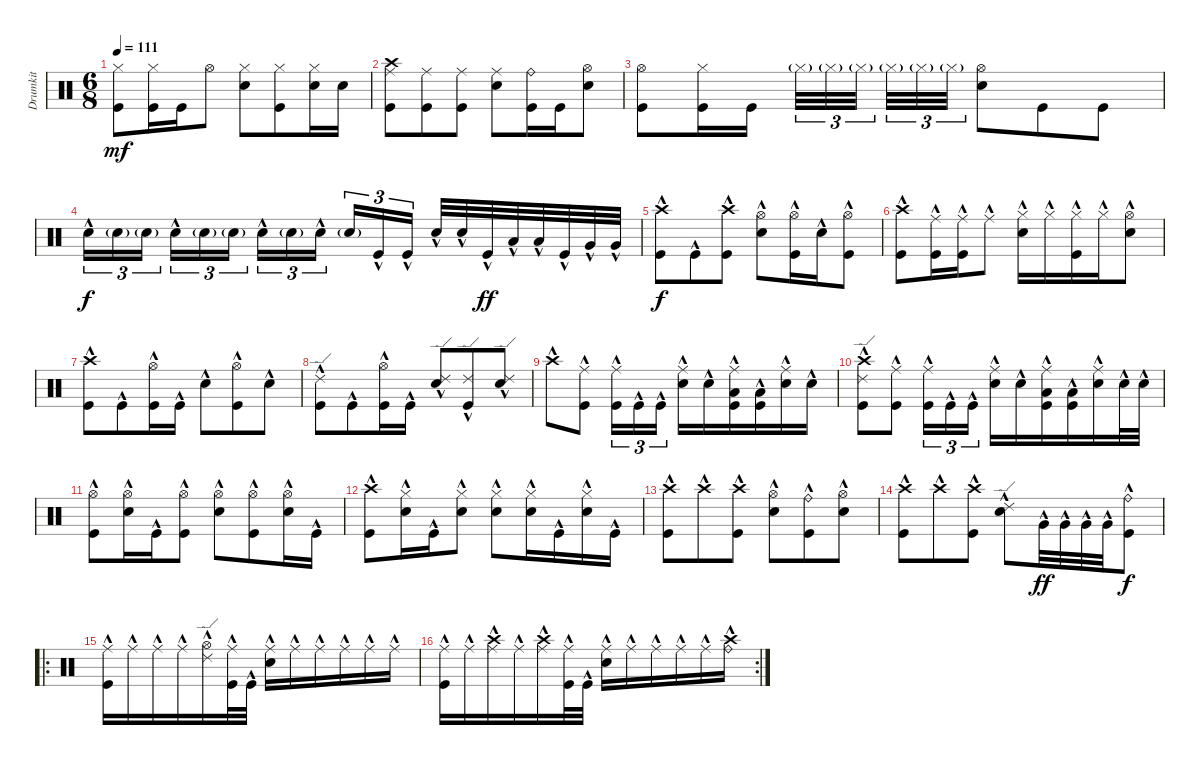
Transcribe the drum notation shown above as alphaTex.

\track ("Drumkit" "Drumkit") {instrument percussion}
\staff {score}
\articulation defaults
\ts (6 8)
\tempo 111
\clef neutral
\ks c
("Hi-Hat (closed)" "Kick (hit)").8{dy mf} ("Kick (hit)" "Hi-Hat (closed)").16 "Kick (hit)".16 "Hi-Hat (open)".8 ("Snare (hit) 2" "Hi-Hat (closed)").8 ("Kick (hit)" "Hi-Hat (closed)").8 ("Hi-Hat (closed)" "Snare (hit) 2").16 "Snare (hit) 2".16 |
("Kick (hit)" "Ride (middle)" "Crash high (hit)").8 ("Kick (hit)" "Ride (middle)").8 ("Kick (hit)" "Ride (middle)").8 ("Snare (hit) 2" "Ride (middle)").8 ("Kick (hit)" "Ride (bell)").16 "Kick (hit)".16 ("Snare (hit) 2" "Hi-Hat (open)").8 |
("Kick (hit)" "Hi-Hat (open)").8 ("Kick (hit)" "Hi-Hat (closed)").16 "Kick (hit)".16 "Hi-Hat (closed)"{g}.32{tu (3 2)} "Hi-Hat (closed)"{g}.32{tu (3 2)} "Hi-Hat (closed)"{g}.32{tu (3 2)} "Hi-Hat (closed)"{g}.32{tu (3 2)} "Hi-Hat (closed)"{g}.32{tu (3 2)} "Hi-Hat (closed)"{g}.32{tu (3 2)} ("Snare (hit) 2" "Hi-Hat (open)").8 "Kick (hit)".8 "Kick (hit)".8 |
"Snare (hit) 2"{hac}.16{tu (3 2) dy f} "Snare (hit) 2"{g}.16{tu (3 2)} "Snare (hit) 2"{g}.16{tu (3 2)} "Snare (hit) 2"{hac}.16{tu (3 2)} "Snare (hit) 2"{g}.16{tu (3 2)} "Snare (hit) 2"{g}.16{tu (3 2)} "Snare (hit) 2"{hac}.16{tu (3 2)} "Snare (hit) 2"{g}.16{tu (3 2)} "Snare (hit) 2"{hac}.16{tu (3 2)} "Snare (hit) 2"{g}.16{tu (3 2)} "Kick (hit)"{hac}.16{tu (3 2)} "Kick (hit)"{hac}.16{tu (3 2)} "Snare (hit) 2"{hac}.32 "Snare (hit) 2"{hac}.32 "Kick (hit)"{hac}.32{dy ff} "Low Tom (hit)"{hac}.32 "Low Tom (hit)"{hac}.32 "Kick (hit)"{hac}.32 "Very Low Tom (hit)"{hac}.32 "Very Low Tom (hit)"{hac}.32 |
("Kick (hit)"{hac} "Crash high (hit)"{hac}).8{dy f} "Kick (hit)"{hac}.8 ("Kick (hit)"{hac} "Crash high (hit)"{hac}).8 ("Snare (hit) 2"{hac} "Hi-Hat (open)"{hac}).8 ("Hi-Hat (open)"{hac} "Kick (hit)").16 "Snare (hit) 2"{hac}.16 ("Kick (hit)"{hac} "Hi-Hat (open)").8 |
("Kick (hit)"{hac} "Crash high (hit)"{hac}).8 ("Kick (hit)"{hac} "Ride (middle)"{hac}).16 ("Kick (hit)"{hac} "Ride (middle)"{hac}).16 "Ride (middle)"{hac}.8 ("Snare (hit) 2"{hac} "Hi-Hat (closed)"{hac}).16 "Hi-Hat (closed)"{hac}.16 ("Kick (hit)"{hac} "Hi-Hat (closed)"{hac}).16 "Hi-Hat (closed)"{hac}.16 ("Snare (hit) 2"{hac} "Hi-Hat (open)"{hac}).8 |
("Kick (hit)"{hac} "Crash high (hit)"{hac}).8 "Kick (hit)"{hac}.8 ("Kick (hit)"{hac} "Hi-Hat (open)"{hac}).16 "Kick (hit)"{hac}.16 "Snare (hit) 2"{hac}.8 ("Kick (hit)"{hac} "Hi-Hat (open)"{hac}).8 "Snare (hit) 2"{hac}.8 |
("Kick (hit)"{hac} "Ride (edge) 2"{hac}).8 "Kick (hit)"{hac}.8 ("Kick (hit)"{hac} "Hi-Hat (open)"{hac}).16 "Kick (hit)"{hac}.16 ("Snare (hit) 2"{hac} "Ride (edge) 2"{hac}).8 ("Kick (hit)"{hac} "Ride (edge) 2"{hac}).8 ("Snare (hit) 2"{hac} "Ride (edge) 2"{hac}).8 |
"Crash high (hit)"{hac}.8 ("Kick (hit)"{hac} "Ride (middle)"{hac}).8 ("Kick (hit)"{hac} "Ride (middle)"{hac}).16{tu (3 2)} "Kick (hit)"{hac}.16{tu (3 2)} "Kick (hit)"{hac}.16{tu (3 2)} ("Snare (hit) 2"{hac} "Ride (middle)"{hac}).16 "Snare (hit) 2"{hac}.16 ("Kick (hit)"{hac} "Ride (middle)"{hac} "Low Tom (hit)"{hac}).16 ("Kick (hit)"{hac} "Low Tom (hit)"{hac}).16 ("Snare (hit) 2"{hac} "Ride (middle)"{hac}).16 "Snare (hit) 2"{hac}.16 |
("Crash high (hit)"{hac} "Kick (hit)"{hac} "Ride (edge) 2"{hac}).8 ("Kick (hit)"{hac} "Ride (middle)"{hac}).8 ("Kick (hit)"{hac} "Ride (middle)"{hac}).16{tu (3 2)} "Kick (hit)"{hac}.16{tu (3 2)} "Kick (hit)"{hac}.16{tu (3 2)} ("Snare (hit) 2"{hac} "Ride (middle)"{hac}).16 "Snare (hit) 2"{hac}.16 ("Kick (hit)"{hac} "Ride (middle)"{hac} "Low Tom (hit)"{hac}).16 ("Kick (hit)"{hac} "Low Tom (hit)"{hac}).16 ("Snare (hit) 2"{hac} "Ride (middle)"{hac}).16 "Snare (hit) 2"{hac}.32 "Snare (hit) 2"{hac}.32 |
("Kick (hit)"{hac} "Hi-Hat (open)"{hac}).8 ("Snare (hit) 2"{hac} "Hi-Hat (open)"{hac}).16 "Kick (hit)"{hac}.16 ("Kick (hit)"{hac} "Hi-Hat (open)"{hac}).8 ("Snare (hit) 2"{hac} "Hi-Hat (open)"{hac}).8 ("Kick (hit)"{hac} "Hi-Hat (open)"{hac}).8 ("Snare (hit) 2"{hac} "Hi-Hat (open)"{hac}).16 "Kick (hit)"{hac}.16 |
("Kick (hit)"{hac} "Crash high (hit)"{hac}).8 ("Snare (hit) 2"{hac} "Hi-Hat (closed)"{hac}).16 "Kick (hit)"{hac}.16 ("Snare (hit) 2"{hac} "Hi-Hat (closed)"{hac}).8 ("Snare (hit) 2"{hac} "Hi-Hat (closed)"{hac}).8 ("Snare (hit) 2"{hac} "Hi-Hat (closed)"{hac}).16 "Kick (hit)"{hac}.16 ("Snare (hit) 2"{hac} "Hi-Hat (closed)"{hac}).16 "Kick (hit)"{hac}.16 |
("Kick (hit)"{hac} "Crash high (hit)"{hac}).8 "Crash high (hit)"{hac}.8 ("Kick (hit)"{hac} "Crash high (hit)"{hac}).8 ("Snare (hit) 2"{hac} "Hi-Hat (open)"{hac}).8 ("Kick (hit)"{hac} "Ride (bell)"{hac}).8 ("Snare (hit) 2"{hac} "Hi-Hat (open)"{hac}).8 |
("Kick (hit)"{hac} "Crash high (hit)"{hac}).8 "Crash high (hit)"{hac}.8 ("Kick (hit)"{hac} "Crash high (hit)"{hac}).8 ("Snare (hit) 2"{hac} "Ride (edge) 2"{hac}).8 "Very Low Tom (hit)"{hac}.32{dy ff} "Very Low Tom (hit)"{hac}.32 "Very Low Tom (hit)"{hac}.32 "Very Low Tom (hit)"{hac}.32 ("Kick (hit)"{hac} "Ride (bell)"{hac}).8{dy f} |
\ro
("Ride (middle)"{hac} "Kick (hit)"{hac}).16 "Ride (middle)"{hac}.16 "Ride (middle)"{hac}.16 "Ride (middle)"{hac}.16 ("Ride (edge) 2"{hac} "Hi-Hat (open)"{hac}).16 ("Ride (middle)"{hac} "Kick (hit)"{hac}).32 "Kick (hit)"{hac}.32 ("Ride (middle)"{hac} "Snare (hit) 2"{hac}).16 "Ride (middle)"{hac}.16 "Ride (middle)"{hac}.16 "Ride (middle)"{hac}.16 "Ride (middle)"{hac}.16 "Ride (middle)"{hac}.16 |
\rc 2
("Ride (middle)"{hac} "Kick (hit)"{hac}).16 "Ride (middle)"{hac}.16 ("Ride (middle)"{hac} "Crash high (hit)"{hac}).16 "Ride (middle)"{hac}.16 ("Ride (middle)"{hac} "Crash high (hit)"{hac}).16 ("Ride (middle)"{hac} "Kick (hit)"{hac}).32 "Kick (hit)"{hac}.32 ("Ride (middle)"{hac} "Snare (hit) 2"{hac}).16 "Ride (middle)"{hac}.16 "Ride (middle)"{hac}.16 "Ride (middle)"{hac}.16 "Ride (middle)"{hac}.16 ("Ride (bell)"{hac} "Crash high (hit)"{hac}).16
